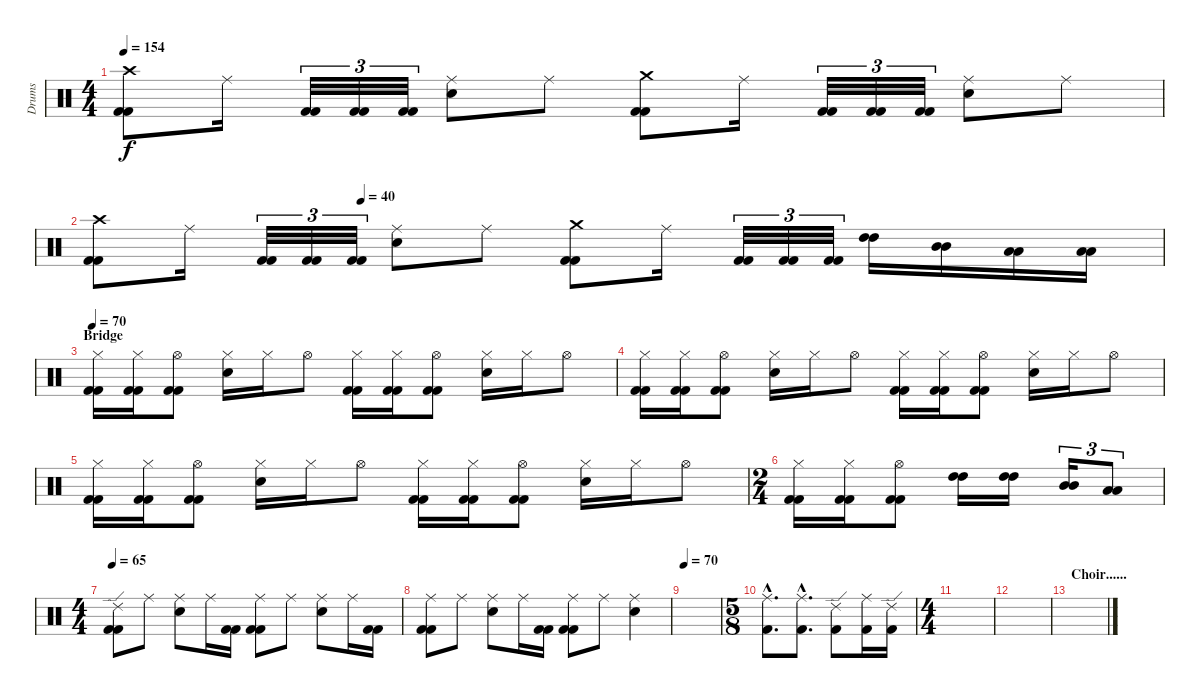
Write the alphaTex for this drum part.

\track ("Drums" "Drums") {instrument percussion}
\staff {score}
\articulation defaults
\ts (4 4)
\tempo 154
\clef neutral
\ks c
("Crash high (hit)" "Kick (hit) 2" "Kick (hit) 2").8{dy f} "Ride (middle)".16 ("Kick (hit) 2" "Kick (hit) 2").32{tu (3 2)} ("Kick (hit) 2" "Kick (hit) 2").32{tu (3 2)} ("Kick (hit) 2" "Kick (hit) 2").32{tu (3 2)} ("Ride (middle)" "Snare (hit) 2").8 "Ride (middle)".8 ("Crash medium (hit)" "Kick (hit) 2" "Kick (hit) 2").8 "Ride (middle)".16 ("Kick (hit) 2" "Kick (hit) 2").32{tu (3 2)} ("Kick (hit) 2" "Kick (hit) 2").32{tu (3 2)} ("Kick (hit) 2" "Kick (hit) 2").32{tu (3 2)} ("Ride (middle)" "Snare (hit) 2").8 "Ride (middle)".8 |
\tempo (40 0.25)
("Crash high (hit)" "Kick (hit) 2" "Kick (hit) 2").8 "Ride (middle)".16 ("Kick (hit) 2" "Kick (hit) 2").32{tu (3 2)} ("Kick (hit) 2" "Kick (hit) 2").32{tu (3 2)} ("Kick (hit) 2" "Kick (hit) 2").32{tu (3 2)} ("Ride (middle)" "Snare (hit) 2").8 "Ride (middle)".8 ("Crash medium (hit)" "Kick (hit) 2" "Kick (hit) 2").8 "Ride (middle)".16 ("Kick (hit) 2" "Kick (hit) 2").32{tu (3 2)} ("Kick (hit) 2" "Kick (hit) 2").32{tu (3 2)} ("Kick (hit) 2" "Kick (hit) 2").32{tu (3 2)} ("High Tom (hit)" "High Tom (hit)").16 ("Mid Tom (hit)" "Mid Tom (hit)").16 ("Low Tom (hit)" "Low Tom (hit)").16 ("Low Floor Tom (hit)" "Low Floor Tom (hit)").16 |
\section ("" "Bridge")
\tempo 70
("Hi-Hat (closed)" "Kick (hit) 2" "Kick (hit) 2").16 ("Hi-Hat (closed)" "Kick (hit) 2" "Kick (hit) 2").16 ("Hi-Hat (open)" "Kick (hit) 2" "Kick (hit) 2").8 ("Hi-Hat (closed)" "Snare (hit) 2").16 "Hi-Hat (closed)".16 "Hi-Hat (open)".8 ("Hi-Hat (closed)" "Kick (hit) 2" "Kick (hit) 2").16 ("Hi-Hat (closed)" "Kick (hit) 2" "Kick (hit) 2").16 ("Hi-Hat (open)" "Kick (hit) 2" "Kick (hit) 2").8 ("Hi-Hat (closed)" "Snare (hit) 2").16 "Hi-Hat (closed)".16 "Hi-Hat (open)".8 |
("Hi-Hat (closed)" "Kick (hit) 2" "Kick (hit) 2").16 ("Hi-Hat (closed)" "Kick (hit) 2" "Kick (hit) 2").16 ("Hi-Hat (open)" "Kick (hit) 2" "Kick (hit) 2").8 ("Hi-Hat (closed)" "Snare (hit) 2").16 "Hi-Hat (closed)".16 "Hi-Hat (open)".8 ("Hi-Hat (closed)" "Kick (hit) 2" "Kick (hit) 2").16 ("Hi-Hat (closed)" "Kick (hit) 2" "Kick (hit) 2").16 ("Hi-Hat (open)" "Kick (hit) 2" "Kick (hit) 2").8 ("Hi-Hat (closed)" "Snare (hit) 2").16 "Hi-Hat (closed)".16 "Hi-Hat (open)".8 |
("Hi-Hat (closed)" "Kick (hit) 2" "Kick (hit) 2").16 ("Hi-Hat (closed)" "Kick (hit) 2" "Kick (hit) 2").16 ("Hi-Hat (open)" "Kick (hit) 2" "Kick (hit) 2").8 ("Hi-Hat (closed)" "Snare (hit) 2").16 "Hi-Hat (closed)".16 "Hi-Hat (open)".8 ("Hi-Hat (closed)" "Kick (hit) 2" "Kick (hit) 2").16 ("Hi-Hat (closed)" "Kick (hit) 2" "Kick (hit) 2").16 ("Hi-Hat (open)" "Kick (hit) 2" "Kick (hit) 2").8 ("Hi-Hat (closed)" "Snare (hit) 2").16 "Hi-Hat (closed)".16 "Hi-Hat (open)".8 |
\ts (2 4)
("Hi-Hat (closed)" "Kick (hit) 2" "Kick (hit) 2").16 ("Hi-Hat (closed)" "Kick (hit) 2" "Kick (hit) 2").16 ("Hi-Hat (open)" "Kick (hit) 2" "Kick (hit) 2").8 ("High Tom (hit)" "High Tom (hit)").16 ("High Tom (hit)" "High Tom (hit)").16 ("Mid Tom (hit)" "Mid Tom (hit)").16{tu (3 2)} ("Low Tom (hit)" "Low Tom (hit)").8{tu (3 2)} |
\ts (4 4)
\tempo 65
("Ride (edge) 2" "Kick (hit) 2" "Kick (hit) 2").8 "Ride (middle)".8 ("Ride (middle)" "Snare (hit) 2").8 "Ride (middle)".16 ("Kick (hit) 2" "Kick (hit) 2").16 ("Ride (middle)" "Kick (hit) 2" "Kick (hit) 2").8 "Ride (middle)".8 ("Ride (middle)" "Snare (hit) 2").8 "Ride (middle)".16 ("Kick (hit) 2" "Kick (hit) 2").16 |
("Ride (middle)" "Kick (hit) 2" "Kick (hit) 2").8 "Ride (middle)".8 ("Ride (middle)" "Snare (hit) 2").8 "Ride (middle)".16 ("Kick (hit) 2" "Kick (hit) 2").16 ("Ride (middle)" "Kick (hit) 2" "Kick (hit) 2").8 "Ride (middle)".8 ("Ride (middle)" "Snare (hit) 2").4 |
\tempo 70
|
\ts (5 8)
("Ride (middle)"{hac} "Kick (hit) 2"{hac}).8{d} ("Ride (middle)"{hac} "Kick (hit) 2"{hac}).8{d} ("Ride (edge) 2" "Kick (hit) 2").8 ("Ride (middle)" "Kick (hit) 2").16 ("Ride (edge) 2" "Kick (hit) 2").16 |
\ts (4 4)
|
|
\section ("" "Choir......")
